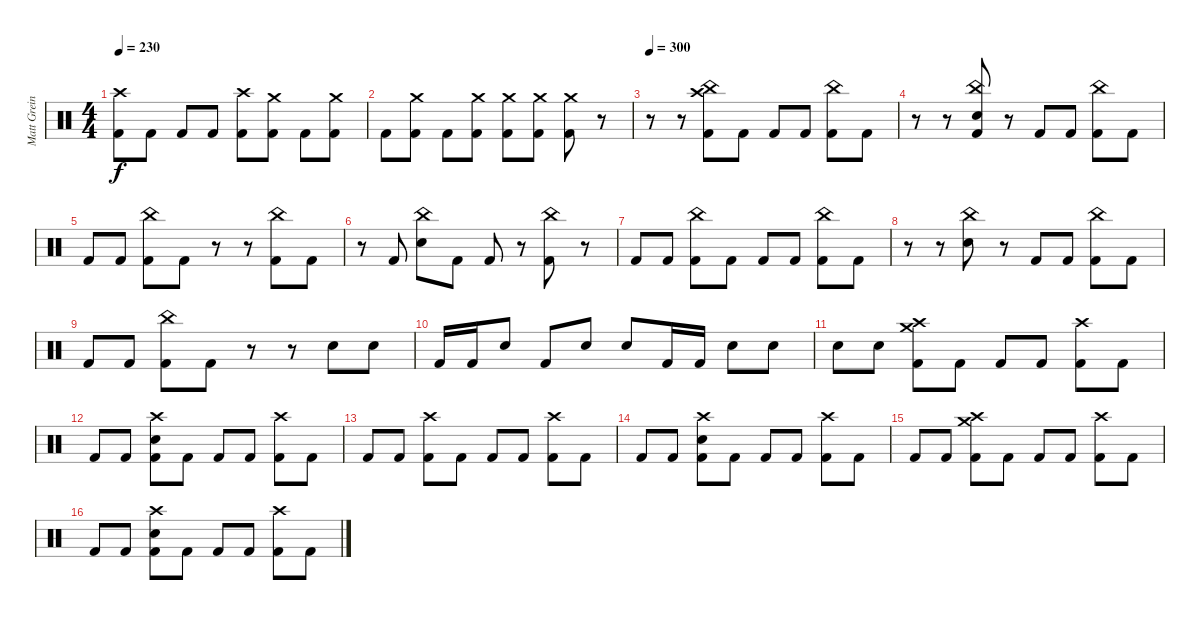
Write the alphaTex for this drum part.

\track ("Matt Greiner (Drums)" "Matt Grein") {instrument percussion}
\staff {score}
\articulation defaults
\ts (4 4)
\tempo 230
\clef neutral
\ks c
("Crash high (hit)" "Kick (hit) 2").8{dy f} "Kick (hit) 2".8 "Kick (hit) 2".8 "Kick (hit) 2".8 ("Crash high (hit)" "Kick (hit) 2").8 ("Crash medium (hit)" "Kick (hit) 2").8 "Kick (hit) 2".8 ("Crash medium (hit)" "Kick (hit) 2").8 |
"Kick (hit) 2".8 ("Crash medium (hit)" "Kick (hit) 2").8 "Kick (hit) 2".8 ("Crash medium (hit)" "Kick (hit) 2").8 ("Crash medium (hit)" "Kick (hit) 2").8 ("Crash medium (hit)" "Kick (hit) 2").8 ("Crash medium (hit)" "Kick (hit) 2").8 r.8 |
\tempo 300
r.8 r.8 ("Crash high (hit)" "China (hit)" "Kick (hit) 2").8 "Kick (hit) 2".8 "Kick (hit) 2".8 "Kick (hit) 2".8 ("China (hit)" "Kick (hit) 2").8 "Kick (hit) 2".8 |
r.8 r.8 ("China (hit)" "Electric Snare (hit)" "Kick (hit) 2").8 r.8 "Kick (hit) 2".8 "Kick (hit) 2".8 ("China (hit)" "Kick (hit) 2").8 "Kick (hit) 2".8 |
"Kick (hit) 2".8 "Kick (hit) 2".8 ("China (hit)" "Kick (hit) 2").8 "Kick (hit) 2".8 r.8 r.8 ("China (hit)" "Kick (hit) 2").8 "Kick (hit) 2".8 |
r.8 "Kick (hit) 2".8 ("China (hit)" "Electric Snare (hit)").8 "Kick (hit) 2".8 "Kick (hit) 2".8 r.8 ("China (hit)" "Kick (hit) 2").8 r.8 |
"Kick (hit) 2".8 "Kick (hit) 2".8 ("China (hit)" "Kick (hit) 2").8 "Kick (hit) 2".8 "Kick (hit) 2".8 "Kick (hit) 2".8 ("China (hit)" "Kick (hit) 2").8 "Kick (hit) 2".8 |
r.8 r.8 ("China (hit)" "Electric Snare (hit)").8 r.8 "Kick (hit) 2".8 "Kick (hit) 2".8 ("China (hit)" "Kick (hit) 2").8 "Kick (hit) 2".8 |
"Kick (hit) 2".8 "Kick (hit) 2".8 ("China (hit)" "Kick (hit) 2").8 "Kick (hit) 2".8 r.8 r.8 "Electric Snare (hit)".8 "Electric Snare (hit)".8 |
"Kick (hit) 2".16 "Kick (hit) 2".16 "Electric Snare (hit)".8 "Kick (hit) 2".8 "Electric Snare (hit)".8 "Electric Snare (hit)".8 "Kick (hit) 2".16 "Kick (hit) 2".16 "Electric Snare (hit)".8 "Electric Snare (hit)".8 |
"Electric Snare (hit)".8 "Electric Snare (hit)".8 ("Crash medium (hit)" "Crash high (hit)" "Kick (hit) 2").8 "Kick (hit) 2".8 "Kick (hit) 2".8 "Kick (hit) 2".8 ("Crash high (hit)" "Kick (hit) 2").8 "Kick (hit) 2".8 |
"Kick (hit) 2".8 "Kick (hit) 2".8 ("Crash high (hit)" "Electric Snare (hit)" "Kick (hit) 2").8 "Kick (hit) 2".8 "Kick (hit) 2".8 "Kick (hit) 2".8 ("Crash high (hit)" "Kick (hit) 2").8 "Kick (hit) 2".8 |
"Kick (hit) 2".8 "Kick (hit) 2".8 ("Crash high (hit)" "Kick (hit) 2").8 "Kick (hit) 2".8 "Kick (hit) 2".8 "Kick (hit) 2".8 ("Crash high (hit)" "Kick (hit) 2").8 "Kick (hit) 2".8 |
"Kick (hit) 2".8 "Kick (hit) 2".8 ("Crash high (hit)" "Electric Snare (hit)" "Kick (hit) 2").8 "Kick (hit) 2".8 "Kick (hit) 2".8 "Kick (hit) 2".8 ("Crash high (hit)" "Kick (hit) 2").8 "Kick (hit) 2".8 |
"Kick (hit) 2".8 "Kick (hit) 2".8 ("Crash medium (hit)" "Crash high (hit)" "Kick (hit) 2").8 "Kick (hit) 2".8 "Kick (hit) 2".8 "Kick (hit) 2".8 ("Crash high (hit)" "Kick (hit) 2").8 "Kick (hit) 2".8 |
"Kick (hit) 2".8 "Kick (hit) 2".8 ("Crash high (hit)" "Electric Snare (hit)" "Kick (hit) 2").8 "Kick (hit) 2".8 "Kick (hit) 2".8 "Kick (hit) 2".8 ("Crash high (hit)" "Kick (hit) 2").8 "Kick (hit) 2".8
